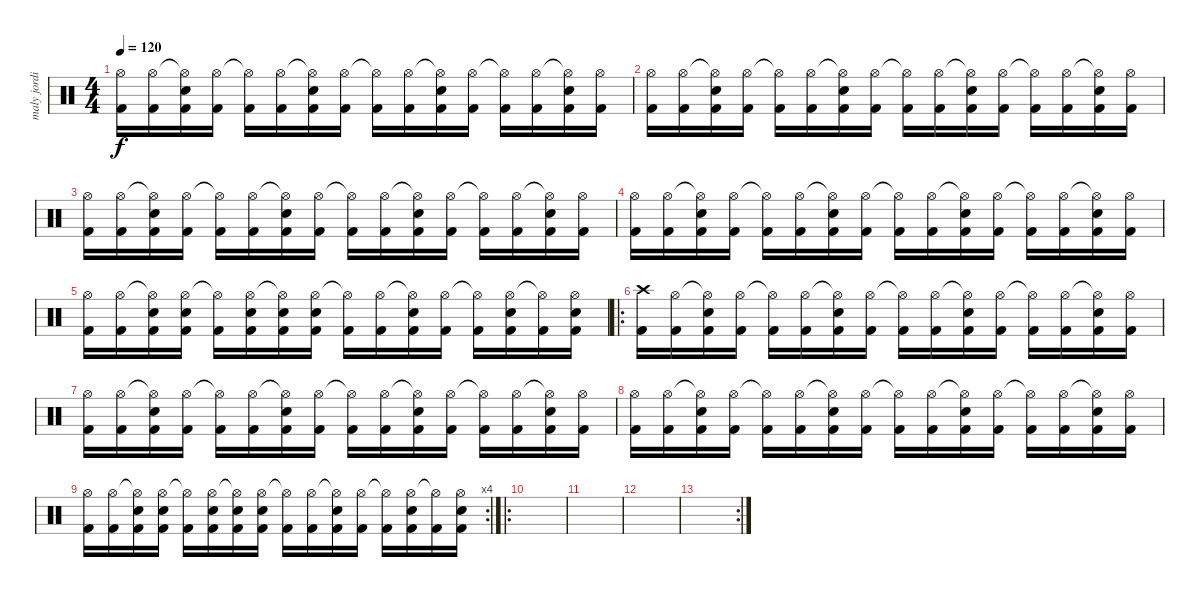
\track ("maly jordison - Battery" "maly jordi") {instrument percussion}
\staff {score}
\articulation defaults
\ts (4 4)
\tempo 120
\clef neutral
\ks c
("Hi-Hat (open)" "Kick (hit) 2").16{dy f} ("Hi-Hat (open)" "Kick (hit) 2").16 ("Hi-Hat (open)"{t} "Electric Snare (hit)" "Kick (hit) 2").16 ("Hi-Hat (open)" "Kick (hit) 2").16 ("Hi-Hat (open)"{t} "Kick (hit) 2").16 ("Hi-Hat (open)" "Kick (hit) 2").16 ("Hi-Hat (open)"{t} "Electric Snare (hit)" "Kick (hit) 2").16 ("Hi-Hat (open)" "Kick (hit) 2").16 ("Hi-Hat (open)"{t} "Kick (hit) 2").16 ("Hi-Hat (open)" "Kick (hit) 2").16 ("Hi-Hat (open)"{t} "Electric Snare (hit)" "Kick (hit) 2").16 ("Hi-Hat (open)" "Kick (hit) 2").16 ("Hi-Hat (open)"{t} "Kick (hit) 2").16 ("Hi-Hat (open)" "Kick (hit) 2").16 ("Hi-Hat (open)"{t} "Electric Snare (hit)" "Kick (hit) 2").16 ("Hi-Hat (open)" "Kick (hit) 2").16 |
("Hi-Hat (open)" "Kick (hit) 2").16 ("Hi-Hat (open)" "Kick (hit) 2").16 ("Hi-Hat (open)"{t} "Electric Snare (hit)" "Kick (hit) 2").16 ("Hi-Hat (open)" "Kick (hit) 2").16 ("Hi-Hat (open)"{t} "Kick (hit) 2").16 ("Hi-Hat (open)" "Kick (hit) 2").16 ("Hi-Hat (open)"{t} "Electric Snare (hit)" "Kick (hit) 2").16 ("Hi-Hat (open)" "Kick (hit) 2").16 ("Hi-Hat (open)"{t} "Kick (hit) 2").16 ("Hi-Hat (open)" "Kick (hit) 2").16 ("Hi-Hat (open)"{t} "Electric Snare (hit)" "Kick (hit) 2").16 ("Hi-Hat (open)" "Kick (hit) 2").16 ("Hi-Hat (open)"{t} "Kick (hit) 2").16 ("Hi-Hat (open)" "Kick (hit) 2").16 ("Hi-Hat (open)"{t} "Electric Snare (hit)" "Kick (hit) 2").16 ("Hi-Hat (open)" "Kick (hit) 2").16 |
("Hi-Hat (open)" "Kick (hit) 2").16 ("Hi-Hat (open)" "Kick (hit) 2").16 ("Hi-Hat (open)"{t} "Electric Snare (hit)" "Kick (hit) 2").16 ("Hi-Hat (open)" "Kick (hit) 2").16 ("Hi-Hat (open)"{t} "Kick (hit) 2").16 ("Hi-Hat (open)" "Kick (hit) 2").16 ("Hi-Hat (open)"{t} "Electric Snare (hit)" "Kick (hit) 2").16 ("Hi-Hat (open)" "Kick (hit) 2").16 ("Hi-Hat (open)"{t} "Kick (hit) 2").16 ("Hi-Hat (open)" "Kick (hit) 2").16 ("Hi-Hat (open)"{t} "Electric Snare (hit)" "Kick (hit) 2").16 ("Hi-Hat (open)" "Kick (hit) 2").16 ("Hi-Hat (open)"{t} "Kick (hit) 2").16 ("Hi-Hat (open)" "Kick (hit) 2").16 ("Hi-Hat (open)"{t} "Electric Snare (hit)" "Kick (hit) 2").16 ("Hi-Hat (open)" "Kick (hit) 2").16 |
("Hi-Hat (open)" "Kick (hit) 2").16 ("Hi-Hat (open)" "Kick (hit) 2").16 ("Hi-Hat (open)"{t} "Electric Snare (hit)" "Kick (hit) 2").16 ("Hi-Hat (open)" "Kick (hit) 2").16 ("Hi-Hat (open)"{t} "Kick (hit) 2").16 ("Hi-Hat (open)" "Kick (hit) 2").16 ("Hi-Hat (open)"{t} "Electric Snare (hit)" "Kick (hit) 2").16 ("Hi-Hat (open)" "Kick (hit) 2").16 ("Hi-Hat (open)"{t} "Kick (hit) 2").16 ("Hi-Hat (open)" "Kick (hit) 2").16 ("Hi-Hat (open)"{t} "Electric Snare (hit)" "Kick (hit) 2").16 ("Hi-Hat (open)" "Kick (hit) 2").16 ("Hi-Hat (open)"{t} "Kick (hit) 2").16 ("Hi-Hat (open)" "Kick (hit) 2").16 ("Hi-Hat (open)"{t} "Electric Snare (hit)" "Kick (hit) 2").16 ("Hi-Hat (open)" "Kick (hit) 2").16 |
("Hi-Hat (open)" "Kick (hit) 2").16 ("Hi-Hat (open)" "Kick (hit) 2").16 ("Hi-Hat (open)"{t} "Electric Snare (hit)" "Kick (hit) 2").16 ("Hi-Hat (open)" "Electric Snare (hit)" "Kick (hit) 2").16 ("Hi-Hat (open)"{t} "Kick (hit) 2").16 ("Hi-Hat (open)" "Electric Snare (hit)" "Kick (hit) 2").16 ("Hi-Hat (open)"{t} "Electric Snare (hit)" "Kick (hit) 2").16 ("Hi-Hat (open)" "Electric Snare (hit)" "Kick (hit) 2").16 ("Hi-Hat (open)"{t} "Kick (hit) 2").16 ("Hi-Hat (open)" "Kick (hit) 2").16 ("Hi-Hat (open)"{t} "Electric Snare (hit)" "Kick (hit) 2").16 ("Hi-Hat (open)" "Kick (hit) 2").16 ("Hi-Hat (open)"{t} "Kick (hit) 2").16 ("Hi-Hat (open)" "Electric Snare (hit)" "Kick (hit) 2").16 ("Hi-Hat (open)"{t} "Kick (hit) 2").16 ("Hi-Hat (open)" "Electric Snare (hit)" "Kick (hit) 2").16 |
\ro
("Crash high (hit)" "Kick (hit) 2").16 ("Hi-Hat (open)" "Kick (hit) 2").16 ("Hi-Hat (open)"{t} "Electric Snare (hit)" "Kick (hit) 2").16 ("Hi-Hat (open)" "Kick (hit) 2").16 ("Hi-Hat (open)"{t} "Kick (hit) 2").16 ("Hi-Hat (open)" "Kick (hit) 2").16 ("Hi-Hat (open)"{t} "Electric Snare (hit)" "Kick (hit) 2").16 ("Hi-Hat (open)" "Kick (hit) 2").16 ("Hi-Hat (open)"{t} "Kick (hit) 2").16 ("Hi-Hat (open)" "Kick (hit) 2").16 ("Hi-Hat (open)"{t} "Electric Snare (hit)" "Kick (hit) 2").16 ("Hi-Hat (open)" "Kick (hit) 2").16 ("Hi-Hat (open)"{t} "Kick (hit) 2").16 ("Hi-Hat (open)" "Kick (hit) 2").16 ("Hi-Hat (open)"{t} "Electric Snare (hit)" "Kick (hit) 2").16 ("Hi-Hat (open)" "Kick (hit) 2").16 |
("Hi-Hat (open)" "Kick (hit) 2").16 ("Hi-Hat (open)" "Kick (hit) 2").16 ("Hi-Hat (open)"{t} "Electric Snare (hit)" "Kick (hit) 2").16 ("Hi-Hat (open)" "Kick (hit) 2").16 ("Hi-Hat (open)"{t} "Kick (hit) 2").16 ("Hi-Hat (open)" "Kick (hit) 2").16 ("Hi-Hat (open)"{t} "Electric Snare (hit)" "Kick (hit) 2").16 ("Hi-Hat (open)" "Kick (hit) 2").16 ("Hi-Hat (open)"{t} "Kick (hit) 2").16 ("Hi-Hat (open)" "Kick (hit) 2").16 ("Hi-Hat (open)"{t} "Electric Snare (hit)" "Kick (hit) 2").16 ("Hi-Hat (open)" "Kick (hit) 2").16 ("Hi-Hat (open)"{t} "Kick (hit) 2").16 ("Hi-Hat (open)" "Kick (hit) 2").16 ("Hi-Hat (open)"{t} "Electric Snare (hit)" "Kick (hit) 2").16 ("Hi-Hat (open)" "Kick (hit) 2").16 |
("Hi-Hat (open)" "Kick (hit) 2").16 ("Hi-Hat (open)" "Kick (hit) 2").16 ("Hi-Hat (open)"{t} "Electric Snare (hit)" "Kick (hit) 2").16 ("Hi-Hat (open)" "Kick (hit) 2").16 ("Hi-Hat (open)"{t} "Kick (hit) 2").16 ("Hi-Hat (open)" "Kick (hit) 2").16 ("Hi-Hat (open)"{t} "Electric Snare (hit)" "Kick (hit) 2").16 ("Hi-Hat (open)" "Kick (hit) 2").16 ("Hi-Hat (open)"{t} "Kick (hit) 2").16 ("Hi-Hat (open)" "Kick (hit) 2").16 ("Hi-Hat (open)"{t} "Electric Snare (hit)" "Kick (hit) 2").16 ("Hi-Hat (open)" "Kick (hit) 2").16 ("Hi-Hat (open)"{t} "Kick (hit) 2").16 ("Hi-Hat (open)" "Kick (hit) 2").16 ("Hi-Hat (open)"{t} "Electric Snare (hit)" "Kick (hit) 2").16 ("Hi-Hat (open)" "Kick (hit) 2").16 |
\rc 4
("Hi-Hat (open)" "Kick (hit) 2").16 ("Hi-Hat (open)" "Kick (hit) 2").16 ("Hi-Hat (open)"{t} "Electric Snare (hit)" "Kick (hit) 2").16 ("Hi-Hat (open)" "Electric Snare (hit)" "Kick (hit) 2").16 ("Hi-Hat (open)"{t} "Kick (hit) 2").16 ("Hi-Hat (open)" "Electric Snare (hit)" "Kick (hit) 2").16 ("Hi-Hat (open)"{t} "Electric Snare (hit)" "Kick (hit) 2").16 ("Hi-Hat (open)" "Electric Snare (hit)" "Kick (hit) 2").16 ("Hi-Hat (open)"{t} "Kick (hit) 2").16 ("Hi-Hat (open)" "Kick (hit) 2").16 ("Hi-Hat (open)"{t} "Electric Snare (hit)" "Kick (hit) 2").16 ("Hi-Hat (open)" "Kick (hit) 2").16 ("Hi-Hat (open)"{t} "Kick (hit) 2").16 ("Hi-Hat (open)" "Electric Snare (hit)" "Kick (hit) 2").16 ("Hi-Hat (open)"{t} "Kick (hit) 2").16 ("Hi-Hat (open)" "Electric Snare (hit)" "Kick (hit) 2").16 |
\ro
|
|
|
\rc 2
